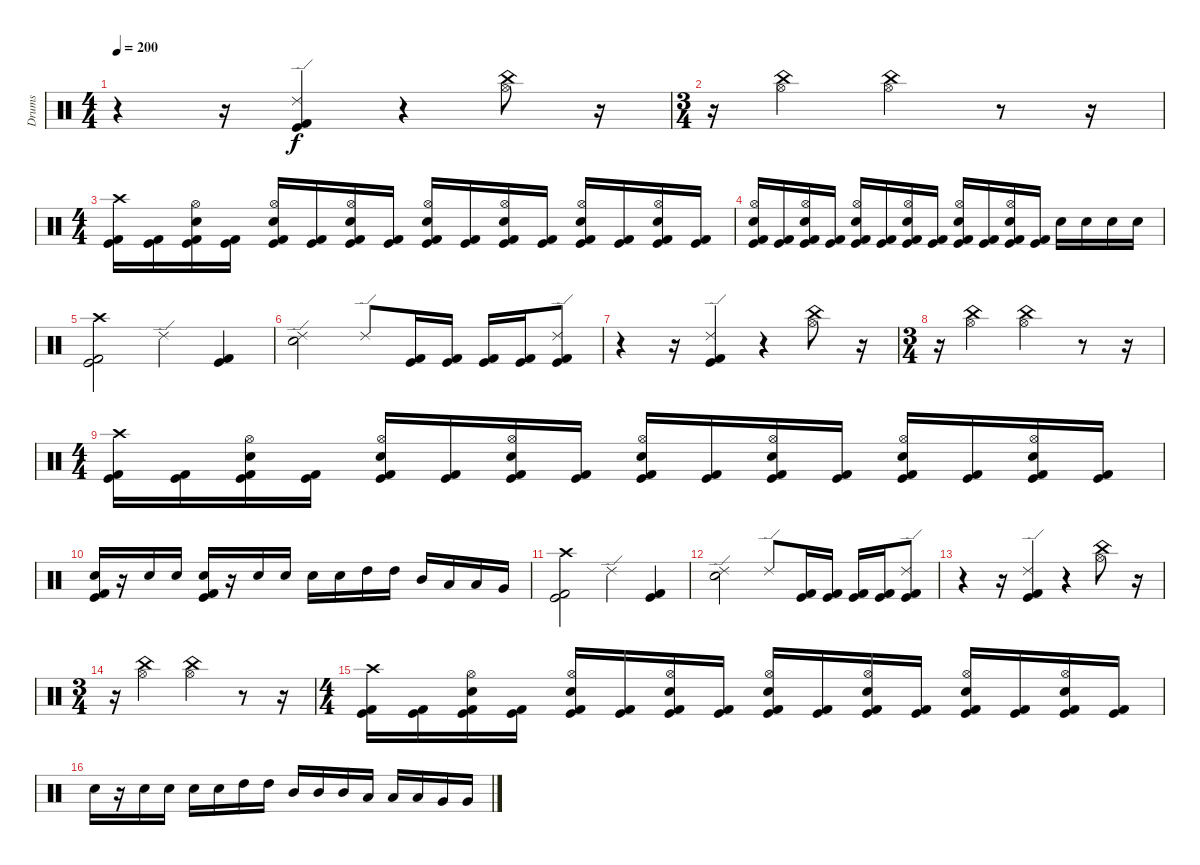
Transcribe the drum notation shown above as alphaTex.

\track ("Drums" "Drums") {instrument percussion}
\staff {score}
\articulation defaults
\ts (4 4)
\tempo 200
\clef neutral
\ks c
r.4{dy f} r.16 ("Ride (edge) 2" "Kick (hit)" "Kick (hit) 2").4 r.4 ("China (hit)" "Hi-Hat (open)").8 r.16 |
\ts (3 4)
r.16 ("China (hit)" "Hi-Hat (open)").4 ("China (hit)" "Hi-Hat (open)").4 r.8 r.16 |
\ts (4 4)
("Crash high (hit)" "Kick (hit)" "Kick (hit) 2").16 ("Kick (hit)" "Kick (hit) 2").16 ("Hi-Hat (open)" "Electric Snare (hit)" "Kick (hit)" "Kick (hit) 2").16 ("Kick (hit)" "Kick (hit) 2").16 ("Hi-Hat (open)" "Electric Snare (hit)" "Kick (hit)" "Kick (hit) 2").16 ("Kick (hit)" "Kick (hit) 2").16 ("Hi-Hat (open)" "Electric Snare (hit)" "Kick (hit)" "Kick (hit) 2").16 ("Kick (hit)" "Kick (hit) 2").16 ("Hi-Hat (open)" "Electric Snare (hit)" "Kick (hit)" "Kick (hit) 2").16 ("Kick (hit)" "Kick (hit) 2").16 ("Hi-Hat (open)" "Electric Snare (hit)" "Kick (hit)" "Kick (hit) 2").16 ("Kick (hit)" "Kick (hit) 2").16 ("Hi-Hat (open)" "Electric Snare (hit)" "Kick (hit)" "Kick (hit) 2").16 ("Kick (hit)" "Kick (hit) 2").16 ("Hi-Hat (open)" "Electric Snare (hit)" "Kick (hit)" "Kick (hit) 2").16 ("Kick (hit)" "Kick (hit) 2").16 |
("Hi-Hat (open)" "Electric Snare (hit)" "Kick (hit)" "Kick (hit) 2").16 ("Kick (hit)" "Kick (hit) 2").16 ("Hi-Hat (open)" "Electric Snare (hit)" "Kick (hit)" "Kick (hit) 2").16 ("Kick (hit)" "Kick (hit) 2").16 ("Hi-Hat (open)" "Electric Snare (hit)" "Kick (hit)" "Kick (hit) 2").16 ("Kick (hit)" "Kick (hit) 2").16 ("Hi-Hat (open)" "Electric Snare (hit)" "Kick (hit)" "Kick (hit) 2").16 ("Kick (hit)" "Kick (hit) 2").16 ("Hi-Hat (open)" "Electric Snare (hit)" "Kick (hit)" "Kick (hit) 2").16 ("Kick (hit)" "Kick (hit) 2").16 ("Hi-Hat (open)" "Electric Snare (hit)" "Kick (hit)" "Kick (hit) 2").16 ("Kick (hit)" "Kick (hit) 2").16 "Electric Snare (hit)".16 "Electric Snare (hit)".16 "Electric Snare (hit)".16 "Electric Snare (hit)".16 |
("Crash high (hit)" "Kick (hit)" "Kick (hit) 2").2 "Ride (edge) 2".4 ("Kick (hit)" "Kick (hit) 2").4 |
("Ride (edge) 2" "Electric Snare (hit)").2 "Ride (edge) 2".8 ("Kick (hit)" "Kick (hit) 2").16 ("Kick (hit)" "Kick (hit) 2").16 ("Kick (hit)" "Kick (hit) 2").16 ("Kick (hit)" "Kick (hit) 2").16 ("Ride (edge) 2" "Kick (hit)" "Kick (hit) 2").8 |
r.4 r.16 ("Ride (edge) 2" "Kick (hit)" "Kick (hit) 2").4 r.4 ("China (hit)" "Hi-Hat (open)").8 r.16 |
\ts (3 4)
r.16 ("China (hit)" "Hi-Hat (open)").4 ("China (hit)" "Hi-Hat (open)").4 r.8 r.16 |
\ts (4 4)
("Crash high (hit)" "Kick (hit)" "Kick (hit) 2").16 ("Kick (hit)" "Kick (hit) 2").16 ("Hi-Hat (open)" "Electric Snare (hit)" "Kick (hit)" "Kick (hit) 2").16 ("Kick (hit)" "Kick (hit) 2").16 ("Hi-Hat (open)" "Electric Snare (hit)" "Kick (hit)" "Kick (hit) 2").16 ("Kick (hit)" "Kick (hit) 2").16 ("Hi-Hat (open)" "Electric Snare (hit)" "Kick (hit)" "Kick (hit) 2").16 ("Kick (hit)" "Kick (hit) 2").16 ("Hi-Hat (open)" "Electric Snare (hit)" "Kick (hit)" "Kick (hit) 2").16 ("Kick (hit)" "Kick (hit) 2").16 ("Hi-Hat (open)" "Electric Snare (hit)" "Kick (hit)" "Kick (hit) 2").16 ("Kick (hit)" "Kick (hit) 2").16 ("Hi-Hat (open)" "Electric Snare (hit)" "Kick (hit)" "Kick (hit) 2").16 ("Kick (hit)" "Kick (hit) 2").16 ("Hi-Hat (open)" "Electric Snare (hit)" "Kick (hit)" "Kick (hit) 2").16 ("Kick (hit)" "Kick (hit) 2").16 |
("Electric Snare (hit)" "Kick (hit)" "Kick (hit) 2").16 r.16 "Electric Snare (hit)".16 "Electric Snare (hit)".16 ("Electric Snare (hit)" "Kick (hit)" "Kick (hit) 2").16 r.16 "Electric Snare (hit)".16 "Electric Snare (hit)".16 "Electric Snare (hit)".16 "Electric Snare (hit)".16 "High Tom (hit)".16 "High Tom (hit)".16 "Mid Tom (hit)".16 "Low Tom (hit)".16 "Low Tom (hit)".16 "Very Low Tom (hit)".16 |
("Crash high (hit)" "Kick (hit)" "Kick (hit) 2").2 "Ride (edge) 2".4 ("Kick (hit)" "Kick (hit) 2").4 |
("Ride (edge) 2" "Electric Snare (hit)").2 "Ride (edge) 2".8 ("Kick (hit)" "Kick (hit) 2").16 ("Kick (hit)" "Kick (hit) 2").16 ("Kick (hit)" "Kick (hit) 2").16 ("Kick (hit)" "Kick (hit) 2").16 ("Ride (edge) 2" "Kick (hit)" "Kick (hit) 2").8 |
r.4 r.16 ("Ride (edge) 2" "Kick (hit)" "Kick (hit) 2").4 r.4 ("China (hit)" "Hi-Hat (open)").8 r.16 |
\ts (3 4)
r.16 ("China (hit)" "Hi-Hat (open)").4 ("China (hit)" "Hi-Hat (open)").4 r.8 r.16 |
\ts (4 4)
("Crash high (hit)" "Kick (hit)" "Kick (hit) 2").16 ("Kick (hit)" "Kick (hit) 2").16 ("Hi-Hat (open)" "Electric Snare (hit)" "Kick (hit)" "Kick (hit) 2").16 ("Kick (hit)" "Kick (hit) 2").16 ("Hi-Hat (open)" "Electric Snare (hit)" "Kick (hit)" "Kick (hit) 2").16 ("Kick (hit)" "Kick (hit) 2").16 ("Hi-Hat (open)" "Electric Snare (hit)" "Kick (hit)" "Kick (hit) 2").16 ("Kick (hit)" "Kick (hit) 2").16 ("Hi-Hat (open)" "Electric Snare (hit)" "Kick (hit)" "Kick (hit) 2").16 ("Kick (hit)" "Kick (hit) 2").16 ("Hi-Hat (open)" "Electric Snare (hit)" "Kick (hit)" "Kick (hit) 2").16 ("Kick (hit)" "Kick (hit) 2").16 ("Hi-Hat (open)" "Electric Snare (hit)" "Kick (hit)" "Kick (hit) 2").16 ("Kick (hit)" "Kick (hit) 2").16 ("Hi-Hat (open)" "Electric Snare (hit)" "Kick (hit)" "Kick (hit) 2").16 ("Kick (hit)" "Kick (hit) 2").16 |
"Electric Snare (hit)".16 r.16 "Electric Snare (hit)".16 "Electric Snare (hit)".16 "Electric Snare (hit)".16 "Electric Snare (hit)".16 "High Tom (hit)".16 "High Tom (hit)".16 "Mid Tom (hit)".16 "Mid Tom (hit)".16 "Mid Tom (hit)".16 "Low Tom (hit)".16 "Low Tom (hit)".16 "Low Tom (hit)".16 "Very Low Tom (hit)".16 "Very Low Tom (hit)".16
